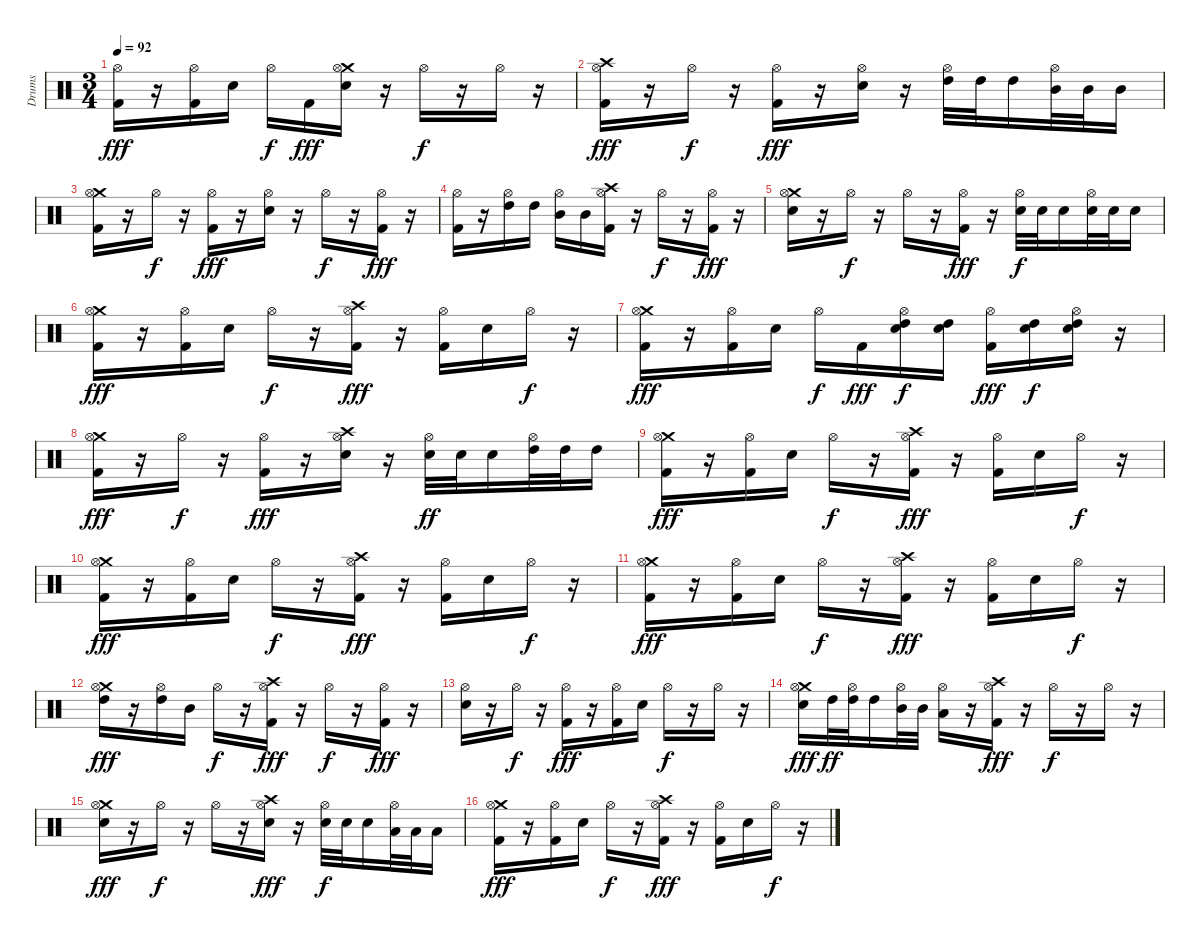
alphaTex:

\track ("Drums" "Drums") {instrument percussion}
\staff {score}
\articulation defaults
\ts (3 4)
\tempo 92
\clef neutral
\ks c
("Hi-Hat (open)" "Kick (hit) 2").16{dy fff} r.16 ("Hi-Hat (open)" "Kick (hit) 2").16 "Snare (hit) 2".16 "Hi-Hat (open)".16{dy f} "Kick (hit) 2".16{dy fff} ("Crash medium (hit)" "Hi-Hat (open)" "Snare (hit) 2").16 r.16 "Hi-Hat (open)".16{dy f} r.16 "Hi-Hat (open)".16 r.16 |
("Crash high (hit)" "Hi-Hat (open)" "Kick (hit) 2").16{dy fff} r.16 "Hi-Hat (open)".16{dy f} r.16 ("Hi-Hat (open)" "Kick (hit) 2").16{dy fff} r.16 ("Hi-Hat (open)" "Snare (hit) 2").16 r.16 ("Hi-Hat (open)" "High Tom (hit)").32 "High Tom (hit)".32 "High Tom (hit)".16 ("Hi-Hat (open)" "Mid Tom (hit)").32 "Mid Tom (hit)".32 "Mid Tom (hit)".16 |
("Crash medium (hit)" "Hi-Hat (open)" "Kick (hit) 2").16 r.16 "Hi-Hat (open)".16{dy f} r.16 ("Hi-Hat (open)" "Kick (hit) 2").16{dy fff} r.16 ("Hi-Hat (open)" "Snare (hit) 2").16 r.16 "Hi-Hat (open)".16{dy f} r.16 ("Hi-Hat (open)" "Kick (hit) 2").16{dy fff} r.16 |
("Hi-Hat (open)" "Kick (hit) 2").16 r.16 ("Hi-Hat (open)" "High Tom (hit)").16 "High Tom (hit)".16 ("Hi-Hat (open)" "Mid Tom (hit)").16 "Mid Tom (hit)".16 ("Crash high (hit)" "Hi-Hat (open)" "Kick (hit) 2").16 r.16 "Hi-Hat (open)".16{dy f} r.16 ("Hi-Hat (open)" "Kick (hit) 2").16{dy fff} r.16 |
("Crash medium (hit)" "Hi-Hat (open)" "Snare (hit) 2").16 r.16 "Hi-Hat (open)".16{dy f} r.16 "Hi-Hat (open)".16 r.16 ("Hi-Hat (open)" "Kick (hit) 2").16{dy fff} r.16 ("Hi-Hat (open)" "Snare (hit) 2").32{dy f} "Snare (hit) 2".32 "Snare (hit) 2".16 ("Hi-Hat (open)" "Snare (hit) 2").32 "Snare (hit) 2".32 "Snare (hit) 2".16 |
("Crash medium (hit)" "Hi-Hat (open)" "Kick (hit) 2").16{dy fff} r.16 ("Hi-Hat (open)" "Kick (hit) 2").16 "Snare (hit) 2".16 "Hi-Hat (open)".16{dy f} r.16 ("Crash high (hit)" "Hi-Hat (open)" "Kick (hit) 2").16{dy fff} r.16 ("Hi-Hat (open)" "Kick (hit) 2").16 "Snare (hit) 2".16 "Hi-Hat (open)".16{dy f} r.16 |
("Crash medium (hit)" "Hi-Hat (open)" "Kick (hit) 2").16{dy fff} r.16 ("Hi-Hat (open)" "Kick (hit) 2").16 "Snare (hit) 2".16 "Hi-Hat (open)".16{dy f} "Kick (hit) 2".16{dy fff} ("Hi-Hat (open)" "High Tom (hit)" "Snare (hit) 2").16{dy f} ("High Tom (hit)" "Snare (hit) 2").16 ("Hi-Hat (open)" "Kick (hit) 2").16{dy fff} ("High Tom (hit)" "Snare (hit) 2").16{dy f} ("Hi-Hat (open)" "High Tom (hit)" "Snare (hit) 2").16 r.16 |
("Crash medium (hit)" "Hi-Hat (open)" "Kick (hit) 2").16{dy fff} r.16 "Hi-Hat (open)".16{dy f} r.16 ("Hi-Hat (open)" "Kick (hit) 2").16{dy fff} r.16 ("Crash high (hit)" "Hi-Hat (open)" "Snare (hit) 2").16 r.16 ("Hi-Hat (open)" "Snare (hit) 2").32{dy ff} "Snare (hit) 2".32 "Snare (hit) 2".16 ("Hi-Hat (open)" "High Tom (hit)").32 "High Tom (hit)".32 "High Tom (hit)".16 |
("Crash medium (hit)" "Hi-Hat (open)" "Kick (hit) 2").16{dy fff} r.16 ("Hi-Hat (open)" "Kick (hit) 2").16 "Snare (hit) 2".16 "Hi-Hat (open)".16{dy f} r.16 ("Crash high (hit)" "Hi-Hat (open)" "Kick (hit) 2").16{dy fff} r.16 ("Hi-Hat (open)" "Kick (hit) 2").16 "Snare (hit) 2".16 "Hi-Hat (open)".16{dy f} r.16 |
("Crash medium (hit)" "Hi-Hat (open)" "Kick (hit) 2").16{dy fff} r.16 ("Hi-Hat (open)" "Kick (hit) 2").16 "Snare (hit) 2".16 "Hi-Hat (open)".16{dy f} r.16 ("Crash high (hit)" "Hi-Hat (open)" "Kick (hit) 2").16{dy fff} r.16 ("Hi-Hat (open)" "Kick (hit) 2").16 "Snare (hit) 2".16 "Hi-Hat (open)".16{dy f} r.16 |
("Crash medium (hit)" "Hi-Hat (open)" "Kick (hit) 2").16{dy fff} r.16 ("Hi-Hat (open)" "Kick (hit) 2").16 "Snare (hit) 2".16 "Hi-Hat (open)".16{dy f} r.16 ("Crash high (hit)" "Hi-Hat (open)" "Kick (hit) 2").16{dy fff} r.16 ("Hi-Hat (open)" "Kick (hit) 2").16 "Snare (hit) 2".16 "Hi-Hat (open)".16{dy f} r.16 |
("Crash medium (hit)" "Hi-Hat (open)" "High Tom (hit)").16{dy fff} r.16 ("Hi-Hat (open)" "High Tom (hit)").16 "Mid Tom (hit)".16 "Hi-Hat (open)".16{dy f} r.16 ("Crash high (hit)" "Hi-Hat (open)" "Kick (hit) 2").16{dy fff} r.16 "Hi-Hat (open)".16{dy f} r.16 ("Hi-Hat (open)" "Kick (hit) 2").16{dy fff} r.16 |
("Hi-Hat (open)" "Snare (hit) 2").16 r.16 "Hi-Hat (open)".16{dy f} r.16 ("Hi-Hat (open)" "Kick (hit) 2").16{dy fff} r.16 ("Hi-Hat (open)" "Kick (hit) 2").16 "Snare (hit) 2".16 "Hi-Hat (open)".16{dy f} r.16 "Hi-Hat (open)".16 r.16 |
("Crash medium (hit)" "Hi-Hat (open)" "Snare (hit) 2").16{dy fff} "High Tom (hit)".32{dy ff} ("Hi-Hat (open)" "High Tom (hit)").32 "High Tom (hit)".16 ("Hi-Hat (open)" "Mid Tom (hit)").32 "Mid Tom (hit)".32 ("Hi-Hat (open)" "Low Tom (hit)").16 r.16 ("Crash high (hit)" "Hi-Hat (open)" "Kick (hit) 2").16{dy fff} r.16 "Hi-Hat (open)".16{dy f} r.16 "Hi-Hat (open)".16 r.16 |
("Crash medium (hit)" "Hi-Hat (open)" "Snare (hit) 2").16{dy fff} r.16 "Hi-Hat (open)".16{dy f} r.16 "Hi-Hat (open)".16 r.16 ("Crash high (hit)" "Hi-Hat (open)" "Snare (hit) 2").16{dy fff} r.16 ("Hi-Hat (open)" "Snare (hit) 2").32{dy f} "Snare (hit) 2".32 "Snare (hit) 2".16 ("Hi-Hat (open)" "Low Tom (hit)").32 "Low Tom (hit)".32 "Low Tom (hit)".16 |
("Crash medium (hit)" "Hi-Hat (open)" "Kick (hit) 2").16{dy fff} r.16 ("Hi-Hat (open)" "Kick (hit) 2").16 "Snare (hit) 2".16 "Hi-Hat (open)".16{dy f} r.16 ("Crash high (hit)" "Hi-Hat (open)" "Kick (hit) 2").16{dy fff} r.16 ("Hi-Hat (open)" "Kick (hit) 2").16 "Snare (hit) 2".16 "Hi-Hat (open)".16{dy f} r.16
